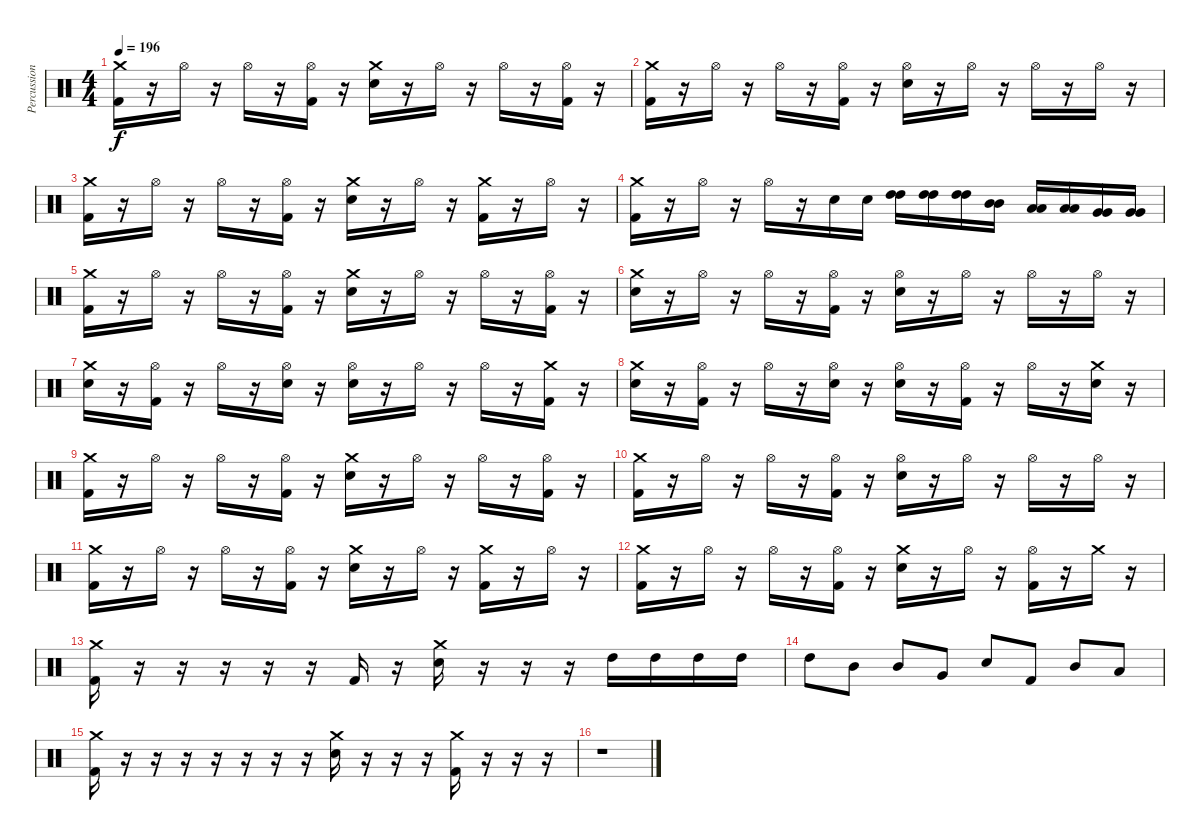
\track ("Percussion" "Percussion") {instrument percussion}
\staff {score}
\articulation defaults
\ts (4 4)
\tempo 196
\clef neutral
\ks c
("Crash medium (hit)" "Kick (hit) 2").16{dy f} r.16 "Hi-Hat (open)".16 r.16 "Hi-Hat (open)".16 r.16 ("Hi-Hat (open)" "Kick (hit) 2").16 r.16 ("Crash medium (hit)" "Electric Snare (hit)").16 r.16 "Hi-Hat (open)".16 r.16 "Hi-Hat (open)".16 r.16 ("Hi-Hat (open)" "Kick (hit) 2").16 r.16 |
("Crash medium (hit)" "Kick (hit) 2").16 r.16 "Hi-Hat (open)".16 r.16 "Hi-Hat (open)".16 r.16 ("Hi-Hat (open)" "Kick (hit) 2").16 r.16 ("Hi-Hat (open)" "Electric Snare (hit)").16 r.16 "Hi-Hat (open)".16 r.16 "Hi-Hat (open)".16 r.16 "Hi-Hat (open)".16 r.16 |
("Crash medium (hit)" "Kick (hit) 2").16 r.16 "Hi-Hat (open)".16 r.16 "Hi-Hat (open)".16 r.16 ("Hi-Hat (open)" "Kick (hit) 2").16 r.16 ("Crash medium (hit)" "Electric Snare (hit)").16 r.16 "Hi-Hat (open)".16 r.16 ("Crash medium (hit)" "Kick (hit) 2").16 r.16 "Hi-Hat (open)".16 r.16 |
("Crash medium (hit)" "Kick (hit) 2").16 r.16 "Hi-Hat (open)".16 r.16 "Hi-Hat (open)".16 r.16 "Electric Snare (hit)".16 "Electric Snare (hit)".16 ("High Tom (hit)" "High Tom (hit)").16 ("High Tom (hit)" "High Tom (hit)").16 ("High Tom (hit)" "High Tom (hit)").16 ("Mid Tom (hit)" "Mid Tom (hit)").16 ("Low Tom (hit)" "Low Tom (hit)").16 ("Low Tom (hit)" "Low Tom (hit)").16 ("Very Low Tom (hit)" "Very Low Tom (hit)").16 ("Very Low Tom (hit)" "Very Low Tom (hit)").16 |
("Crash medium (hit)" "Kick (hit) 2").16 r.16 "Hi-Hat (open)".16 r.16 "Hi-Hat (open)".16 r.16 ("Hi-Hat (open)" "Kick (hit) 2").16 r.16 ("Crash medium (hit)" "Electric Snare (hit)").16 r.16 "Hi-Hat (open)".16 r.16 "Hi-Hat (open)".16 r.16 ("Hi-Hat (open)" "Kick (hit) 2").16 r.16 |
("Crash medium (hit)" "Electric Snare (hit)").16 r.16 "Hi-Hat (open)".16 r.16 "Hi-Hat (open)".16 r.16 ("Hi-Hat (open)" "Kick (hit) 2").16 r.16 ("Hi-Hat (open)" "Electric Snare (hit)").16 r.16 "Hi-Hat (open)".16 r.16 "Hi-Hat (open)".16 r.16 "Hi-Hat (open)".16 r.16 |
("Crash medium (hit)" "Electric Snare (hit)").16 r.16 ("Hi-Hat (open)" "Kick (hit) 2").16 r.16 "Hi-Hat (open)".16 r.16 ("Hi-Hat (open)" "Electric Snare (hit)").16 r.16 ("Hi-Hat (open)" "Electric Snare (hit)").16 r.16 "Hi-Hat (open)".16 r.16 "Hi-Hat (open)".16 r.16 ("Crash medium (hit)" "Kick (hit) 2").16 r.16 |
("Crash medium (hit)" "Electric Snare (hit)").16 r.16 ("Hi-Hat (open)" "Kick (hit) 2").16 r.16 "Hi-Hat (open)".16 r.16 ("Hi-Hat (open)" "Electric Snare (hit)").16 r.16 ("Hi-Hat (open)" "Electric Snare (hit)").16 r.16 ("Hi-Hat (open)" "Kick (hit) 2").16 r.16 "Hi-Hat (open)".16 r.16 ("Crash medium (hit)" "Electric Snare (hit)").16 r.16 |
("Crash medium (hit)" "Kick (hit) 2").16 r.16 "Hi-Hat (open)".16 r.16 "Hi-Hat (open)".16 r.16 ("Hi-Hat (open)" "Kick (hit) 2").16 r.16 ("Crash medium (hit)" "Electric Snare (hit)").16 r.16 "Hi-Hat (open)".16 r.16 "Hi-Hat (open)".16 r.16 ("Hi-Hat (open)" "Kick (hit) 2").16 r.16 |
("Crash medium (hit)" "Kick (hit) 2").16 r.16 "Hi-Hat (open)".16 r.16 "Hi-Hat (open)".16 r.16 ("Hi-Hat (open)" "Kick (hit) 2").16 r.16 ("Hi-Hat (open)" "Electric Snare (hit)").16 r.16 "Hi-Hat (open)".16 r.16 "Hi-Hat (open)".16 r.16 "Hi-Hat (open)".16 r.16 |
("Crash medium (hit)" "Kick (hit) 2").16 r.16 "Hi-Hat (open)".16 r.16 "Hi-Hat (open)".16 r.16 ("Hi-Hat (open)" "Kick (hit) 2").16 r.16 ("Crash medium (hit)" "Electric Snare (hit)").16 r.16 "Hi-Hat (open)".16 r.16 ("Crash medium (hit)" "Kick (hit) 2").16 r.16 "Hi-Hat (open)".16 r.16 |
("Crash medium (hit)" "Kick (hit) 2").16 r.16 "Hi-Hat (open)".16 r.16 "Hi-Hat (open)".16 r.16 ("Hi-Hat (open)" "Kick (hit) 2").16 r.16 ("Crash medium (hit)" "Electric Snare (hit)").16 r.16 "Hi-Hat (open)".16 r.16 ("Hi-Hat (open)" "Kick (hit) 2").16 r.16 "Crash medium (hit)".16 r.16 |
("Crash medium (hit)" "Kick (hit) 2").16 r.16 r.16 r.16 r.16 r.16 "Kick (hit) 2".16 r.16 ("Crash medium (hit)" "Electric Snare (hit)").16 r.16 r.16 r.16 "High Tom (hit)".16 "High Tom (hit)".16 "High Tom (hit)".16 "High Tom (hit)".16 |
"High Tom (hit)".8 "Mid Tom (hit)".8 "Mid Tom (hit)".8 "Very Low Tom (hit)".8 "Electric Snare (hit)".8 "Kick (hit) 2".8 "Mid Tom (hit)".8 "Low Tom (hit)".8 |
("Crash medium (hit)" "Kick (hit) 2").16 r.16 r.16 r.16 r.16 r.16 r.16 r.16 ("Crash medium (hit)" "Electric Snare (hit)").16 r.16 r.16 r.16 ("Crash medium (hit)" "Kick (hit) 2").16 r.16 r.16 r.16 |
r.1
